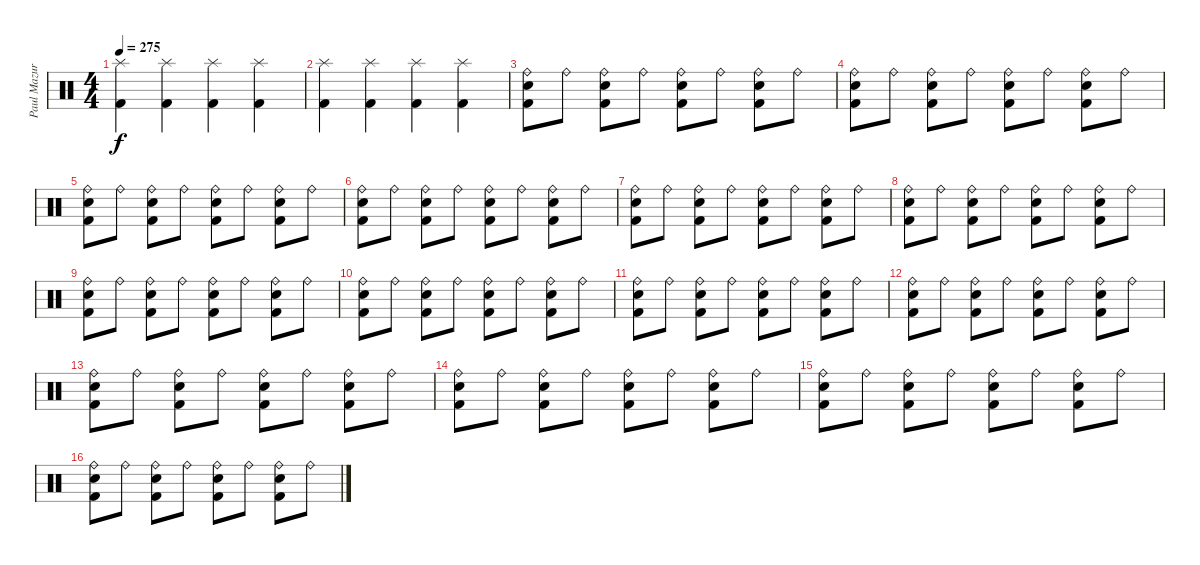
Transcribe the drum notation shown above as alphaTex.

\track ("Paul Mazurkiewicz" "Paul Mazur") {instrument percussion}
\staff {score}
\articulation defaults
\ts (4 4)
\tempo 275
\clef neutral
\ks c
("Splash (hit)" "Kick (hit) 2").4{dy f} ("Splash (hit)" "Kick (hit) 2").4 ("Splash (hit)" "Kick (hit) 2").4 ("Splash (hit)" "Kick (hit) 2").4 |
("Splash (hit)" "Kick (hit) 2").4 ("Splash (hit)" "Kick (hit) 2").4 ("Splash (hit)" "Kick (hit) 2").4 ("Splash (hit)" "Kick (hit) 2").4 |
("Ride (bell)" "Snare (hit) 2" "Kick (hit) 2").8 "Ride (bell)".8 ("Ride (bell)" "Snare (hit) 2" "Kick (hit) 2").8 "Ride (bell)".8 ("Ride (bell)" "Snare (hit) 2" "Kick (hit) 2").8 "Ride (bell)".8 ("Ride (bell)" "Snare (hit) 2" "Kick (hit) 2").8 "Ride (bell)".8 |
("Ride (bell)" "Snare (hit) 2" "Kick (hit) 2").8 "Ride (bell)".8 ("Ride (bell)" "Snare (hit) 2" "Kick (hit) 2").8 "Ride (bell)".8 ("Ride (bell)" "Snare (hit) 2" "Kick (hit) 2").8 "Ride (bell)".8 ("Ride (bell)" "Snare (hit) 2" "Kick (hit) 2").8 "Ride (bell)".8 |
("Ride (bell)" "Snare (hit) 2" "Kick (hit) 2").8 "Ride (bell)".8 ("Ride (bell)" "Snare (hit) 2" "Kick (hit) 2").8 "Ride (bell)".8 ("Ride (bell)" "Snare (hit) 2" "Kick (hit) 2").8 "Ride (bell)".8 ("Ride (bell)" "Snare (hit) 2" "Kick (hit) 2").8 "Ride (bell)".8 |
("Ride (bell)" "Snare (hit) 2" "Kick (hit) 2").8 "Ride (bell)".8 ("Ride (bell)" "Snare (hit) 2" "Kick (hit) 2").8 "Ride (bell)".8 ("Ride (bell)" "Snare (hit) 2" "Kick (hit) 2").8 "Ride (bell)".8 ("Ride (bell)" "Snare (hit) 2" "Kick (hit) 2").8 "Ride (bell)".8 |
("Ride (bell)" "Snare (hit) 2" "Kick (hit) 2").8 "Ride (bell)".8 ("Ride (bell)" "Snare (hit) 2" "Kick (hit) 2").8 "Ride (bell)".8 ("Ride (bell)" "Snare (hit) 2" "Kick (hit) 2").8 "Ride (bell)".8 ("Ride (bell)" "Snare (hit) 2" "Kick (hit) 2").8 "Ride (bell)".8 |
("Ride (bell)" "Snare (hit) 2" "Kick (hit) 2").8 "Ride (bell)".8 ("Ride (bell)" "Snare (hit) 2" "Kick (hit) 2").8 "Ride (bell)".8 ("Ride (bell)" "Snare (hit) 2" "Kick (hit) 2").8 "Ride (bell)".8 ("Ride (bell)" "Snare (hit) 2" "Kick (hit) 2").8 "Ride (bell)".8 |
("Ride (bell)" "Snare (hit) 2" "Kick (hit) 2").8 "Ride (bell)".8 ("Ride (bell)" "Snare (hit) 2" "Kick (hit) 2").8 "Ride (bell)".8 ("Ride (bell)" "Snare (hit) 2" "Kick (hit) 2").8 "Ride (bell)".8 ("Ride (bell)" "Snare (hit) 2" "Kick (hit) 2").8 "Ride (bell)".8 |
("Ride (bell)" "Snare (hit) 2" "Kick (hit) 2").8 "Ride (bell)".8 ("Ride (bell)" "Snare (hit) 2" "Kick (hit) 2").8 "Ride (bell)".8 ("Ride (bell)" "Snare (hit) 2" "Kick (hit) 2").8 "Ride (bell)".8 ("Ride (bell)" "Snare (hit) 2" "Kick (hit) 2").8 "Ride (bell)".8 |
("Ride (bell)" "Snare (hit) 2" "Kick (hit) 2").8 "Ride (bell)".8 ("Ride (bell)" "Snare (hit) 2" "Kick (hit) 2").8 "Ride (bell)".8 ("Ride (bell)" "Snare (hit) 2" "Kick (hit) 2").8 "Ride (bell)".8 ("Ride (bell)" "Snare (hit) 2" "Kick (hit) 2").8 "Ride (bell)".8 |
("Ride (bell)" "Snare (hit) 2" "Kick (hit) 2").8 "Ride (bell)".8 ("Ride (bell)" "Snare (hit) 2" "Kick (hit) 2").8 "Ride (bell)".8 ("Ride (bell)" "Snare (hit) 2" "Kick (hit) 2").8 "Ride (bell)".8 ("Ride (bell)" "Snare (hit) 2" "Kick (hit) 2").8 "Ride (bell)".8 |
("Ride (bell)" "Snare (hit) 2" "Kick (hit) 2").8 "Ride (bell)".8 ("Ride (bell)" "Snare (hit) 2" "Kick (hit) 2").8 "Ride (bell)".8 ("Ride (bell)" "Snare (hit) 2" "Kick (hit) 2").8 "Ride (bell)".8 ("Ride (bell)" "Snare (hit) 2" "Kick (hit) 2").8 "Ride (bell)".8 |
("Ride (bell)" "Snare (hit) 2" "Kick (hit) 2").8 "Ride (bell)".8 ("Ride (bell)" "Snare (hit) 2" "Kick (hit) 2").8 "Ride (bell)".8 ("Ride (bell)" "Snare (hit) 2" "Kick (hit) 2").8 "Ride (bell)".8 ("Ride (bell)" "Snare (hit) 2" "Kick (hit) 2").8 "Ride (bell)".8 |
("Ride (bell)" "Snare (hit) 2" "Kick (hit) 2").8 "Ride (bell)".8 ("Ride (bell)" "Snare (hit) 2" "Kick (hit) 2").8 "Ride (bell)".8 ("Ride (bell)" "Snare (hit) 2" "Kick (hit) 2").8 "Ride (bell)".8 ("Ride (bell)" "Snare (hit) 2" "Kick (hit) 2").8 "Ride (bell)".8 |
("Ride (bell)" "Snare (hit) 2" "Kick (hit) 2").8 "Ride (bell)".8 ("Ride (bell)" "Snare (hit) 2" "Kick (hit) 2").8 "Ride (bell)".8 ("Ride (bell)" "Snare (hit) 2" "Kick (hit) 2").8 "Ride (bell)".8 ("Ride (bell)" "Snare (hit) 2" "Kick (hit) 2").8 "Ride (bell)".8
